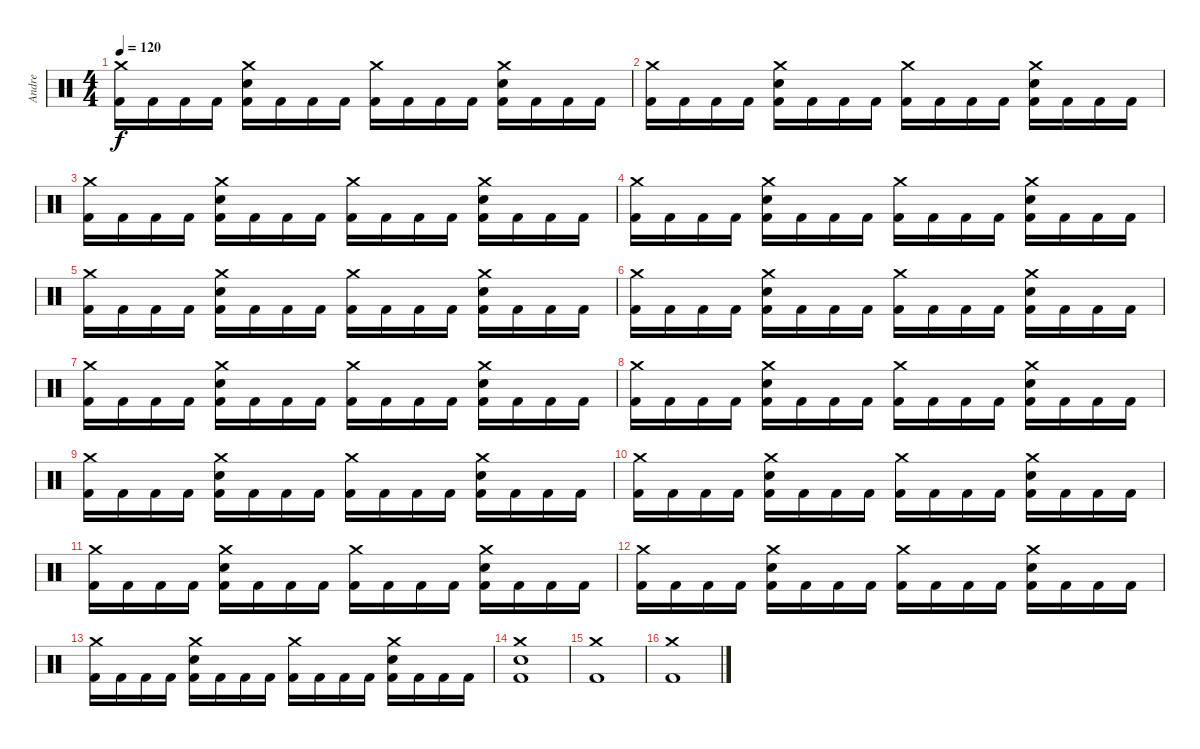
\track ("Andre" "Andre") {instrument percussion}
\staff {score}
\articulation defaults
\ts (4 4)
\tempo 120
\clef neutral
\ks c
("Crash medium (hit)" "Kick (hit) 2").16{dy f} "Kick (hit) 2".16 "Kick (hit) 2".16 "Kick (hit) 2".16 ("Crash medium (hit)" "Snare (hit) 2" "Kick (hit) 2").16 "Kick (hit) 2".16 "Kick (hit) 2".16 "Kick (hit) 2".16 ("Crash medium (hit)" "Kick (hit) 2").16 "Kick (hit) 2".16 "Kick (hit) 2".16 "Kick (hit) 2".16 ("Crash medium (hit)" "Snare (hit) 2" "Kick (hit) 2").16 "Kick (hit) 2".16 "Kick (hit) 2".16 "Kick (hit) 2".16 |
("Crash medium (hit)" "Kick (hit) 2").16 "Kick (hit) 2".16 "Kick (hit) 2".16 "Kick (hit) 2".16 ("Crash medium (hit)" "Snare (hit) 2" "Kick (hit) 2").16 "Kick (hit) 2".16 "Kick (hit) 2".16 "Kick (hit) 2".16 ("Crash medium (hit)" "Kick (hit) 2").16 "Kick (hit) 2".16 "Kick (hit) 2".16 "Kick (hit) 2".16 ("Crash medium (hit)" "Snare (hit) 2" "Kick (hit) 2").16 "Kick (hit) 2".16 "Kick (hit) 2".16 "Kick (hit) 2".16 |
("Crash medium (hit)" "Kick (hit) 2").16 "Kick (hit) 2".16 "Kick (hit) 2".16 "Kick (hit) 2".16 ("Crash medium (hit)" "Snare (hit) 2" "Kick (hit) 2").16 "Kick (hit) 2".16 "Kick (hit) 2".16 "Kick (hit) 2".16 ("Crash medium (hit)" "Kick (hit) 2").16 "Kick (hit) 2".16 "Kick (hit) 2".16 "Kick (hit) 2".16 ("Crash medium (hit)" "Snare (hit) 2" "Kick (hit) 2").16 "Kick (hit) 2".16 "Kick (hit) 2".16 "Kick (hit) 2".16 |
("Crash medium (hit)" "Kick (hit) 2").16 "Kick (hit) 2".16 "Kick (hit) 2".16 "Kick (hit) 2".16 ("Crash medium (hit)" "Snare (hit) 2" "Kick (hit) 2").16 "Kick (hit) 2".16 "Kick (hit) 2".16 "Kick (hit) 2".16 ("Crash medium (hit)" "Kick (hit) 2").16 "Kick (hit) 2".16 "Kick (hit) 2".16 "Kick (hit) 2".16 ("Crash medium (hit)" "Snare (hit) 2" "Kick (hit) 2").16 "Kick (hit) 2".16 "Kick (hit) 2".16 "Kick (hit) 2".16 |
("Crash medium (hit)" "Kick (hit) 2").16 "Kick (hit) 2".16 "Kick (hit) 2".16 "Kick (hit) 2".16 ("Crash medium (hit)" "Snare (hit) 2" "Kick (hit) 2").16 "Kick (hit) 2".16 "Kick (hit) 2".16 "Kick (hit) 2".16 ("Crash medium (hit)" "Kick (hit) 2").16 "Kick (hit) 2".16 "Kick (hit) 2".16 "Kick (hit) 2".16 ("Crash medium (hit)" "Snare (hit) 2" "Kick (hit) 2").16 "Kick (hit) 2".16 "Kick (hit) 2".16 "Kick (hit) 2".16 |
("Crash medium (hit)" "Kick (hit) 2").16 "Kick (hit) 2".16 "Kick (hit) 2".16 "Kick (hit) 2".16 ("Crash medium (hit)" "Snare (hit) 2" "Kick (hit) 2").16 "Kick (hit) 2".16 "Kick (hit) 2".16 "Kick (hit) 2".16 ("Crash medium (hit)" "Kick (hit) 2").16 "Kick (hit) 2".16 "Kick (hit) 2".16 "Kick (hit) 2".16 ("Crash medium (hit)" "Snare (hit) 2" "Kick (hit) 2").16 "Kick (hit) 2".16 "Kick (hit) 2".16 "Kick (hit) 2".16 |
("Crash medium (hit)" "Kick (hit) 2").16 "Kick (hit) 2".16 "Kick (hit) 2".16 "Kick (hit) 2".16 ("Crash medium (hit)" "Snare (hit) 2" "Kick (hit) 2").16 "Kick (hit) 2".16 "Kick (hit) 2".16 "Kick (hit) 2".16 ("Crash medium (hit)" "Kick (hit) 2").16 "Kick (hit) 2".16 "Kick (hit) 2".16 "Kick (hit) 2".16 ("Crash medium (hit)" "Snare (hit) 2" "Kick (hit) 2").16 "Kick (hit) 2".16 "Kick (hit) 2".16 "Kick (hit) 2".16 |
("Crash medium (hit)" "Kick (hit) 2").16 "Kick (hit) 2".16 "Kick (hit) 2".16 "Kick (hit) 2".16 ("Crash medium (hit)" "Snare (hit) 2" "Kick (hit) 2").16 "Kick (hit) 2".16 "Kick (hit) 2".16 "Kick (hit) 2".16 ("Crash medium (hit)" "Kick (hit) 2").16 "Kick (hit) 2".16 "Kick (hit) 2".16 "Kick (hit) 2".16 ("Crash medium (hit)" "Snare (hit) 2" "Kick (hit) 2").16 "Kick (hit) 2".16 "Kick (hit) 2".16 "Kick (hit) 2".16 |
("Crash medium (hit)" "Kick (hit) 2").16 "Kick (hit) 2".16 "Kick (hit) 2".16 "Kick (hit) 2".16 ("Crash medium (hit)" "Snare (hit) 2" "Kick (hit) 2").16 "Kick (hit) 2".16 "Kick (hit) 2".16 "Kick (hit) 2".16 ("Crash medium (hit)" "Kick (hit) 2").16 "Kick (hit) 2".16 "Kick (hit) 2".16 "Kick (hit) 2".16 ("Crash medium (hit)" "Snare (hit) 2" "Kick (hit) 2").16 "Kick (hit) 2".16 "Kick (hit) 2".16 "Kick (hit) 2".16 |
("Crash medium (hit)" "Kick (hit) 2").16 "Kick (hit) 2".16 "Kick (hit) 2".16 "Kick (hit) 2".16 ("Crash medium (hit)" "Snare (hit) 2" "Kick (hit) 2").16 "Kick (hit) 2".16 "Kick (hit) 2".16 "Kick (hit) 2".16 ("Crash medium (hit)" "Kick (hit) 2").16 "Kick (hit) 2".16 "Kick (hit) 2".16 "Kick (hit) 2".16 ("Crash medium (hit)" "Snare (hit) 2" "Kick (hit) 2").16 "Kick (hit) 2".16 "Kick (hit) 2".16 "Kick (hit) 2".16 |
("Crash medium (hit)" "Kick (hit) 2").16 "Kick (hit) 2".16 "Kick (hit) 2".16 "Kick (hit) 2".16 ("Crash medium (hit)" "Snare (hit) 2" "Kick (hit) 2").16 "Kick (hit) 2".16 "Kick (hit) 2".16 "Kick (hit) 2".16 ("Crash medium (hit)" "Kick (hit) 2").16 "Kick (hit) 2".16 "Kick (hit) 2".16 "Kick (hit) 2".16 ("Crash medium (hit)" "Snare (hit) 2" "Kick (hit) 2").16 "Kick (hit) 2".16 "Kick (hit) 2".16 "Kick (hit) 2".16 |
("Crash medium (hit)" "Kick (hit) 2").16 "Kick (hit) 2".16 "Kick (hit) 2".16 "Kick (hit) 2".16 ("Crash medium (hit)" "Snare (hit) 2" "Kick (hit) 2").16 "Kick (hit) 2".16 "Kick (hit) 2".16 "Kick (hit) 2".16 ("Crash medium (hit)" "Kick (hit) 2").16 "Kick (hit) 2".16 "Kick (hit) 2".16 "Kick (hit) 2".16 ("Crash medium (hit)" "Snare (hit) 2" "Kick (hit) 2").16 "Kick (hit) 2".16 "Kick (hit) 2".16 "Kick (hit) 2".16 |
("Crash medium (hit)" "Kick (hit) 2").16 "Kick (hit) 2".16 "Kick (hit) 2".16 "Kick (hit) 2".16 ("Crash medium (hit)" "Snare (hit) 2" "Kick (hit) 2").16 "Kick (hit) 2".16 "Kick (hit) 2".16 "Kick (hit) 2".16 ("Crash medium (hit)" "Kick (hit) 2").16 "Kick (hit) 2".16 "Kick (hit) 2".16 "Kick (hit) 2".16 ("Crash medium (hit)" "Snare (hit) 2" "Kick (hit) 2").16 "Kick (hit) 2".16 "Kick (hit) 2".16 "Kick (hit) 2".16 |
("Crash medium (hit)" "Snare (hit) 2" "Kick (hit) 2").1 |
("Crash medium (hit)" "Kick (hit) 2").1 |
("Crash medium (hit)" "Kick (hit) 2").1
